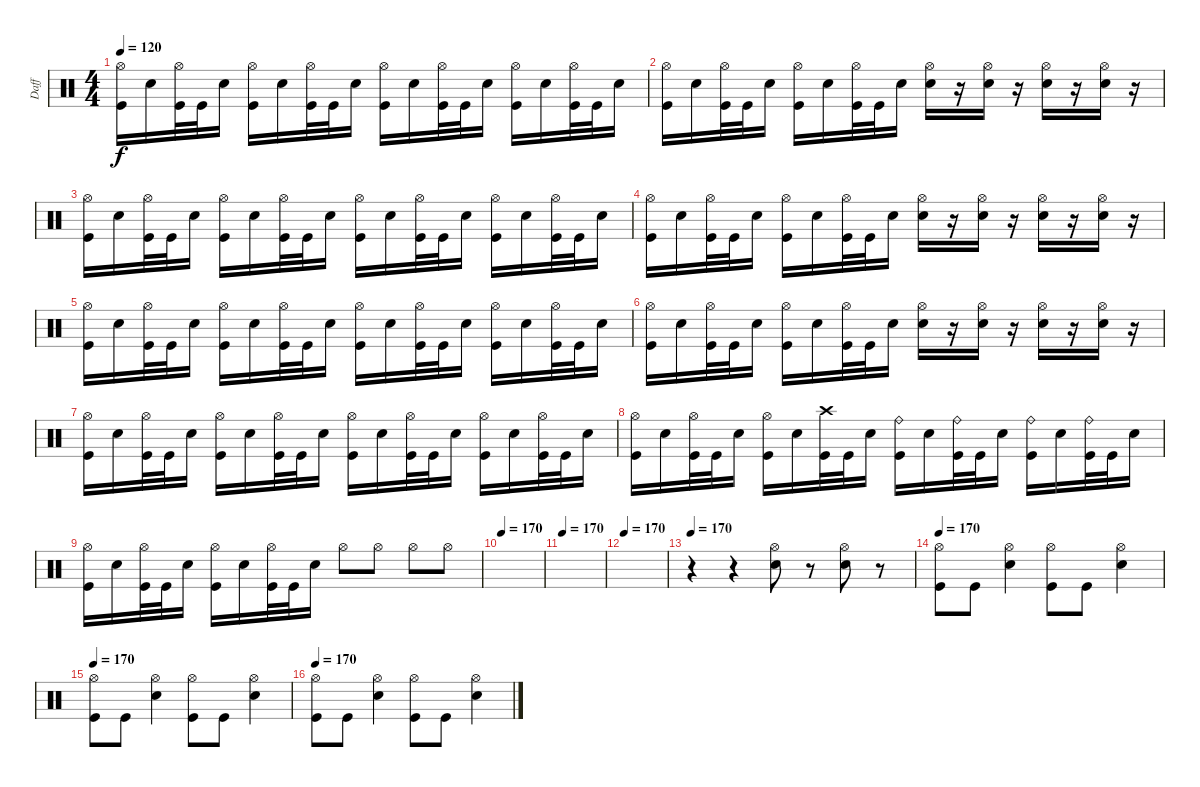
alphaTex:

\track ("Daff" "Daff") {instrument percussion}
\staff {score}
\articulation defaults
\ts (4 4)
\tempo 120
\clef neutral
\ks c
("Hi-Hat (open)" "Kick (hit)").16{dy f} "Electric Snare (hit)".16 ("Hi-Hat (open)" "Kick (hit)").32 "Kick (hit)".32 "Electric Snare (hit)".16 ("Hi-Hat (open)" "Kick (hit)").16 "Electric Snare (hit)".16 ("Hi-Hat (open)" "Kick (hit)").32 "Kick (hit)".32 "Electric Snare (hit)".16 ("Hi-Hat (open)" "Kick (hit)").16 "Electric Snare (hit)".16 ("Hi-Hat (open)" "Kick (hit)").32 "Kick (hit)".32 "Electric Snare (hit)".16 ("Hi-Hat (open)" "Kick (hit)").16 "Electric Snare (hit)".16 ("Hi-Hat (open)" "Kick (hit)").32 "Kick (hit)".32 "Electric Snare (hit)".16 |
("Hi-Hat (open)" "Kick (hit)").16 "Electric Snare (hit)".16 ("Hi-Hat (open)" "Kick (hit)").32 "Kick (hit)".32 "Electric Snare (hit)".16 ("Hi-Hat (open)" "Kick (hit)").16 "Electric Snare (hit)".16 ("Hi-Hat (open)" "Kick (hit)").32 "Kick (hit)".32 "Electric Snare (hit)".16 ("Hi-Hat (open)" "Electric Snare (hit)").16 r.16 ("Hi-Hat (open)" "Electric Snare (hit)").16 r.16 ("Hi-Hat (open)" "Electric Snare (hit)").16 r.16 ("Hi-Hat (open)" "Electric Snare (hit)").16 r.16 |
("Hi-Hat (open)" "Kick (hit)").16 "Electric Snare (hit)".16 ("Hi-Hat (open)" "Kick (hit)").32 "Kick (hit)".32 "Electric Snare (hit)".16 ("Hi-Hat (open)" "Kick (hit)").16 "Electric Snare (hit)".16 ("Hi-Hat (open)" "Kick (hit)").32 "Kick (hit)".32 "Electric Snare (hit)".16 ("Hi-Hat (open)" "Kick (hit)").16 "Electric Snare (hit)".16 ("Hi-Hat (open)" "Kick (hit)").32 "Kick (hit)".32 "Electric Snare (hit)".16 ("Hi-Hat (open)" "Kick (hit)").16 "Electric Snare (hit)".16 ("Hi-Hat (open)" "Kick (hit)").32 "Kick (hit)".32 "Electric Snare (hit)".16 |
("Hi-Hat (open)" "Kick (hit)").16 "Electric Snare (hit)".16 ("Hi-Hat (open)" "Kick (hit)").32 "Kick (hit)".32 "Electric Snare (hit)".16 ("Hi-Hat (open)" "Kick (hit)").16 "Electric Snare (hit)".16 ("Hi-Hat (open)" "Kick (hit)").32 "Kick (hit)".32 "Electric Snare (hit)".16 ("Hi-Hat (open)" "Electric Snare (hit)").16 r.16 ("Hi-Hat (open)" "Electric Snare (hit)").16 r.16 ("Hi-Hat (open)" "Electric Snare (hit)").16 r.16 ("Hi-Hat (open)" "Electric Snare (hit)").16 r.16 |
("Hi-Hat (open)" "Kick (hit)").16 "Electric Snare (hit)".16 ("Hi-Hat (open)" "Kick (hit)").32 "Kick (hit)".32 "Electric Snare (hit)".16 ("Hi-Hat (open)" "Kick (hit)").16 "Electric Snare (hit)".16 ("Hi-Hat (open)" "Kick (hit)").32 "Kick (hit)".32 "Electric Snare (hit)".16 ("Hi-Hat (open)" "Kick (hit)").16 "Electric Snare (hit)".16 ("Hi-Hat (open)" "Kick (hit)").32 "Kick (hit)".32 "Electric Snare (hit)".16 ("Hi-Hat (open)" "Kick (hit)").16 "Electric Snare (hit)".16 ("Hi-Hat (open)" "Kick (hit)").32 "Kick (hit)".32 "Electric Snare (hit)".16 |
("Hi-Hat (open)" "Kick (hit)").16 "Electric Snare (hit)".16 ("Hi-Hat (open)" "Kick (hit)").32 "Kick (hit)".32 "Electric Snare (hit)".16 ("Hi-Hat (open)" "Kick (hit)").16 "Electric Snare (hit)".16 ("Hi-Hat (open)" "Kick (hit)").32 "Kick (hit)".32 "Electric Snare (hit)".16 ("Hi-Hat (open)" "Electric Snare (hit)").16 r.16 ("Hi-Hat (open)" "Electric Snare (hit)").16 r.16 ("Hi-Hat (open)" "Electric Snare (hit)").16 r.16 ("Hi-Hat (open)" "Electric Snare (hit)").16 r.16 |
("Hi-Hat (open)" "Kick (hit)").16 "Electric Snare (hit)".16 ("Hi-Hat (open)" "Kick (hit)").32 "Kick (hit)".32 "Electric Snare (hit)".16 ("Hi-Hat (open)" "Kick (hit)").16 "Electric Snare (hit)".16 ("Hi-Hat (open)" "Kick (hit)").32 "Kick (hit)".32 "Electric Snare (hit)".16 ("Hi-Hat (open)" "Kick (hit)").16 "Electric Snare (hit)".16 ("Hi-Hat (open)" "Kick (hit)").32 "Kick (hit)".32 "Electric Snare (hit)".16 ("Hi-Hat (open)" "Kick (hit)").16 "Electric Snare (hit)".16 ("Hi-Hat (open)" "Kick (hit)").32 "Kick (hit)".32 "Electric Snare (hit)".16 |
("Hi-Hat (open)" "Kick (hit)").16 "Electric Snare (hit)".16 ("Hi-Hat (open)" "Kick (hit)").32 "Kick (hit)".32 "Electric Snare (hit)".16 ("Hi-Hat (open)" "Kick (hit)").16 "Electric Snare (hit)".16 ("Crash high (hit)" "Kick (hit)").32 "Kick (hit)".32 "Electric Snare (hit)".16 ("Ride (bell)" "Kick (hit)").16 "Electric Snare (hit)".16 ("Ride (bell)" "Kick (hit)").32 "Kick (hit)".32 "Electric Snare (hit)".16 ("Ride (bell)" "Kick (hit)").16 "Electric Snare (hit)".16 ("Ride (bell)" "Kick (hit)").32 "Kick (hit)".32 "Electric Snare (hit)".16 |
("Hi-Hat (open)" "Kick (hit)").16 "Electric Snare (hit)".16 ("Hi-Hat (open)" "Kick (hit)").32 "Kick (hit)".32 "Electric Snare (hit)".16 ("Hi-Hat (open)" "Kick (hit)").16 "Electric Snare (hit)".16 ("Hi-Hat (open)" "Kick (hit)").32 "Kick (hit)".32 "Electric Snare (hit)".16 "Hi-Hat (open)".8 "Hi-Hat (open)".8 "Hi-Hat (open)".8 "Hi-Hat (open)".8 |
\tempo 170
|
\tempo 170
|
\tempo 170
|
\tempo 170
r.4 r.4 ("Hi-Hat (open)" "Snare (hit) 2").8 r.8 ("Hi-Hat (open)" "Snare (hit) 2").8 r.8 |
\tempo 170
("Hi-Hat (open)" "Kick (hit)").8 "Kick (hit)".8 ("Hi-Hat (open)" "Snare (hit) 2").4 ("Hi-Hat (open)" "Kick (hit)").8 "Kick (hit)".8 ("Hi-Hat (open)" "Snare (hit) 2").4 |
\tempo 170
("Hi-Hat (open)" "Kick (hit)").8 "Kick (hit)".8 ("Hi-Hat (open)" "Snare (hit) 2").4 ("Hi-Hat (open)" "Kick (hit)").8 "Kick (hit)".8 ("Hi-Hat (open)" "Snare (hit) 2").4 |
\tempo 170
("Hi-Hat (open)" "Kick (hit)").8 "Kick (hit)".8 ("Hi-Hat (open)" "Snare (hit) 2").4 ("Hi-Hat (open)" "Kick (hit)").8 "Kick (hit)".8 ("Hi-Hat (open)" "Snare (hit) 2").4
